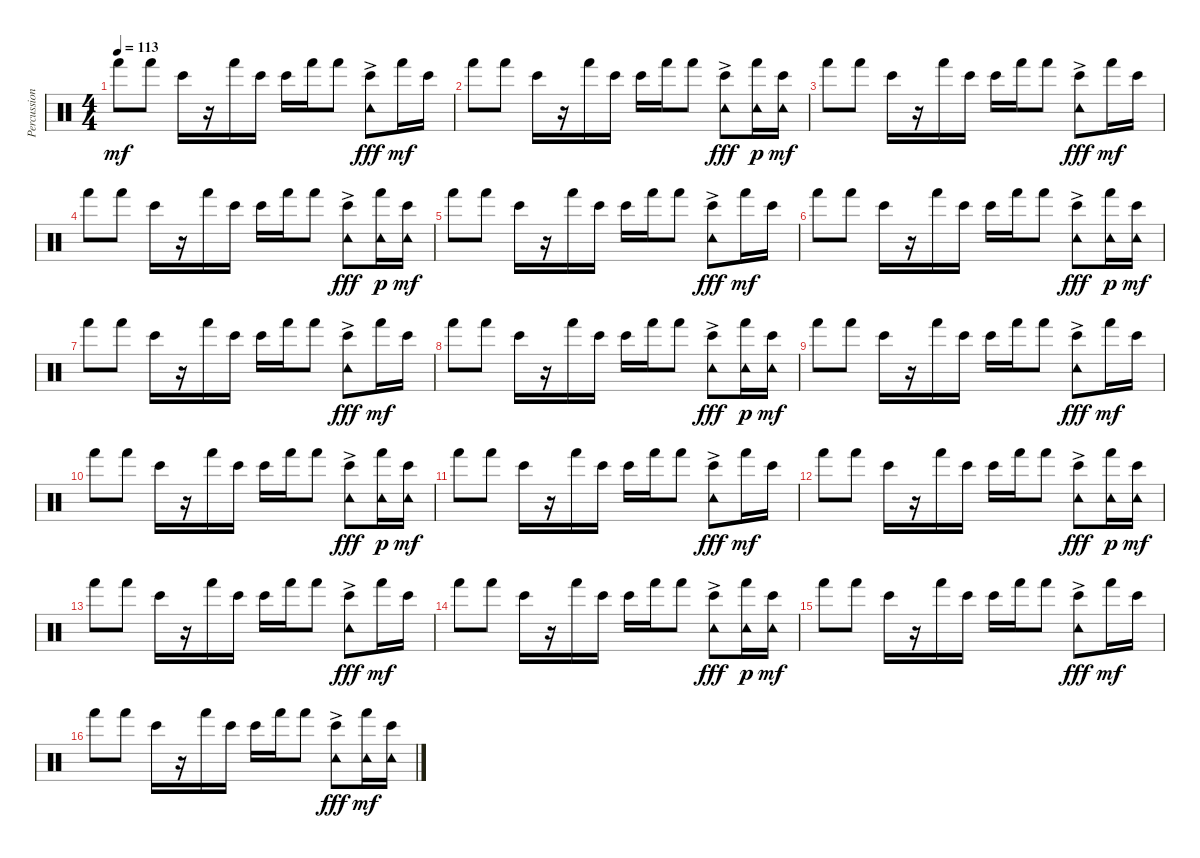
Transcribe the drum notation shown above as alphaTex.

\track ("Percussion" "Percussion") {instrument percussion}
\staff {score}
\articulation defaults
\ts (4 4)
\tempo 113
\clef neutral
\ks c "Hand (hit)".8{dy mf} "Hand (hit)".8 "Bongo High (hit)".16
r.16 "Hand (hit)".16 "Bongo High (hit)".16 "Bongo High (hit)".16 "Hand (hit)".16 "Hand (hit)".8 ("Bongo High (hit)" "Tambourine (hit)"{ac}).8{dy fff} "Hand (hit)".16{dy mf} "Bongo High (hit)".16 |
"Hand (hit)".8 "Hand (hit)".8 "Bongo High (hit)".16 r.16 "Hand (hit)".16 "Bongo High (hit)".16 "Bongo High (hit)".16 "Hand (hit)".16 "Hand (hit)".8 ("Bongo High (hit)" "Tambourine (hit)"{ac}).8{dy fff} ("Hand (hit)" "Tambourine (hit)").16{dy p} ("Bongo High (hit)" "Tambourine (hit)").16{dy mf} |
"Hand (hit)".8 "Hand (hit)".8 "Bongo High (hit)".16 r.16 "Hand (hit)".16 "Bongo High (hit)".16 "Bongo High (hit)".16 "Hand (hit)".16 "Hand (hit)".8 ("Bongo High (hit)" "Tambourine (hit)"{ac}).8{dy fff} "Hand (hit)".16{dy mf} "Bongo High (hit)".16 |
"Hand (hit)".8 "Hand (hit)".8 "Bongo High (hit)".16 r.16 "Hand (hit)".16 "Bongo High (hit)".16 "Bongo High (hit)".16 "Hand (hit)".16 "Hand (hit)".8 ("Bongo High (hit)" "Tambourine (hit)"{ac}).8{dy fff} ("Hand (hit)" "Tambourine (hit)").16{dy p} ("Bongo High (hit)" "Tambourine (hit)").16{dy mf} |
"Hand (hit)".8 "Hand (hit)".8 "Bongo High (hit)".16 r.16 "Hand (hit)".16 "Bongo High (hit)".16 "Bongo High (hit)".16 "Hand (hit)".16 "Hand (hit)".8 ("Bongo High (hit)" "Tambourine (hit)"{ac}).8{dy fff} "Hand (hit)".16{dy mf} "Bongo High (hit)".16 |
"Hand (hit)".8 "Hand (hit)".8 "Bongo High (hit)".16 r.16 "Hand (hit)".16 "Bongo High (hit)".16 "Bongo High (hit)".16 "Hand (hit)".16 "Hand (hit)".8 ("Bongo High (hit)" "Tambourine (hit)"{ac}).8{dy fff} ("Hand (hit)" "Tambourine (hit)").16{dy p} ("Bongo High (hit)" "Tambourine (hit)").16{dy mf} |
"Hand (hit)".8 "Hand (hit)".8 "Bongo High (hit)".16 r.16 "Hand (hit)".16 "Bongo High (hit)".16 "Bongo High (hit)".16 "Hand (hit)".16 "Hand (hit)".8 ("Bongo High (hit)" "Tambourine (hit)"{ac}).8{dy fff} "Hand (hit)".16{dy mf} "Bongo High (hit)".16 |
"Hand (hit)".8 "Hand (hit)".8 "Bongo High (hit)".16 r.16 "Hand (hit)".16 "Bongo High (hit)".16 "Bongo High (hit)".16 "Hand (hit)".16 "Hand (hit)".8 ("Bongo High (hit)" "Tambourine (hit)"{ac}).8{dy fff} ("Hand (hit)" "Tambourine (hit)").16{dy p} ("Bongo High (hit)" "Tambourine (hit)").16{dy mf} |
"Hand (hit)".8 "Hand (hit)".8 "Bongo High (hit)".16 r.16 "Hand (hit)".16 "Bongo High (hit)".16 "Bongo High (hit)".16 "Hand (hit)".16 "Hand (hit)".8 ("Bongo High (hit)" "Tambourine (hit)"{ac}).8{dy fff} "Hand (hit)".16{dy mf} "Bongo High (hit)".16 |
"Hand (hit)".8 "Hand (hit)".8 "Bongo High (hit)".16 r.16 "Hand (hit)".16 "Bongo High (hit)".16 "Bongo High (hit)".16 "Hand (hit)".16 "Hand (hit)".8 ("Bongo High (hit)" "Tambourine (hit)"{ac}).8{dy fff} ("Hand (hit)" "Tambourine (hit)").16{dy p} ("Bongo High (hit)" "Tambourine (hit)").16{dy mf} |
"Hand (hit)".8 "Hand (hit)".8 "Bongo High (hit)".16 r.16 "Hand (hit)".16 "Bongo High (hit)".16 "Bongo High (hit)".16 "Hand (hit)".16 "Hand (hit)".8 ("Bongo High (hit)" "Tambourine (hit)"{ac}).8{dy fff} "Hand (hit)".16{dy mf} "Bongo High (hit)".16 |
"Hand (hit)".8 "Hand (hit)".8 "Bongo High (hit)".16 r.16 "Hand (hit)".16 "Bongo High (hit)".16 "Bongo High (hit)".16 "Hand (hit)".16 "Hand (hit)".8 ("Bongo High (hit)" "Tambourine (hit)"{ac}).8{dy fff} ("Hand (hit)" "Tambourine (hit)").16{dy p} ("Bongo High (hit)" "Tambourine (hit)").16{dy mf} |
"Hand (hit)".8 "Hand (hit)".8 "Bongo High (hit)".16 r.16 "Hand (hit)".16 "Bongo High (hit)".16 "Bongo High (hit)".16 "Hand (hit)".16 "Hand (hit)".8 ("Bongo High (hit)" "Tambourine (hit)"{ac}).8{dy fff} "Hand (hit)".16{dy mf} "Bongo High (hit)".16 |
"Hand (hit)".8 "Hand (hit)".8 "Bongo High (hit)".16 r.16 "Hand (hit)".16 "Bongo High (hit)".16 "Bongo High (hit)".16 "Hand (hit)".16 "Hand (hit)".8 ("Bongo High (hit)" "Tambourine (hit)"{ac}).8{dy fff} ("Hand (hit)" "Tambourine (hit)").16{dy p} ("Bongo High (hit)" "Tambourine (hit)").16{dy mf} |
"Hand (hit)".8 "Hand (hit)".8 "Bongo High (hit)".16 r.16 "Hand (hit)".16 "Bongo High (hit)".16 "Bongo High (hit)".16 "Hand (hit)".16 "Hand (hit)".8 ("Bongo High (hit)" "Tambourine (hit)"{ac}).8{dy fff} "Hand (hit)".16{dy mf} "Bongo High (hit)".16 |
"Hand (hit)".8 "Hand (hit)".8 "Bongo High (hit)".16 r.16 "Hand (hit)".16 "Bongo High (hit)".16 "Bongo High (hit)".16 "Hand (hit)".16 "Hand (hit)".8 ("Bongo High (hit)" "Tambourine (hit)"{ac}).8{dy fff} ("Hand (hit)" "Tambourine (hit)").16{dy mf} ("Bongo High (hit)" "Tambourine (hit)").16
